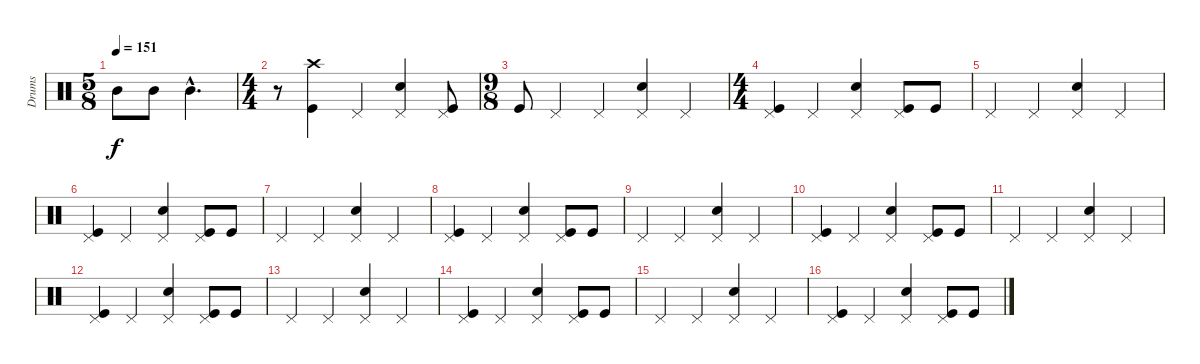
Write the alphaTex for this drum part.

\track ("Drums" "Drums") {instrument percussion}
\staff {score}
\articulation defaults
\ts (5 8)
\tempo 151
\clef neutral
\ks c "Mid Tom (hit)".8{dy f} "Mid Tom (hit)".8 "Mid Tom (hit)"{hac}.4{d}
|
\ts (4 4)
r.8 ("Crash high (hit)" "Kick (hit)").4 "Pedal Hi-Hat (hit)".4 ("Pedal Hi-Hat (hit)" "Snare (hit) 2").4 ("Pedal Hi-Hat (hit)" "Kick (hit)").8 |
\ts (9 8)
"Kick (hit)".8 "Pedal Hi-Hat (hit)".4 "Pedal Hi-Hat (hit)".4 ("Pedal Hi-Hat (hit)" "Snare (hit) 2").4 "Pedal Hi-Hat (hit)".4 |
\ts (4 4)
("Pedal Hi-Hat (hit)" "Kick (hit)").4 "Pedal Hi-Hat (hit)".4 ("Pedal Hi-Hat (hit)" "Snare (hit) 2").4 ("Pedal Hi-Hat (hit)" "Kick (hit)").8 "Kick (hit)".8 |
"Pedal Hi-Hat (hit)".4 "Pedal Hi-Hat (hit)".4 ("Pedal Hi-Hat (hit)" "Snare (hit) 2").4 "Pedal Hi-Hat (hit)".4 |
("Pedal Hi-Hat (hit)" "Kick (hit)").4 "Pedal Hi-Hat (hit)".4 ("Pedal Hi-Hat (hit)" "Snare (hit) 2").4 ("Pedal Hi-Hat (hit)" "Kick (hit)").8 "Kick (hit)".8 |
"Pedal Hi-Hat (hit)".4 "Pedal Hi-Hat (hit)".4 ("Pedal Hi-Hat (hit)" "Snare (hit) 2").4 "Pedal Hi-Hat (hit)".4 |
("Pedal Hi-Hat (hit)" "Kick (hit)").4 "Pedal Hi-Hat (hit)".4 ("Pedal Hi-Hat (hit)" "Snare (hit) 2").4 ("Pedal Hi-Hat (hit)" "Kick (hit)").8 "Kick (hit)".8 |
"Pedal Hi-Hat (hit)".4 "Pedal Hi-Hat (hit)".4 ("Pedal Hi-Hat (hit)" "Snare (hit) 2").4 "Pedal Hi-Hat (hit)".4 |
("Pedal Hi-Hat (hit)" "Kick (hit)").4 "Pedal Hi-Hat (hit)".4 ("Pedal Hi-Hat (hit)" "Snare (hit) 2").4 ("Pedal Hi-Hat (hit)" "Kick (hit)").8 "Kick (hit)".8 |
"Pedal Hi-Hat (hit)".4 "Pedal Hi-Hat (hit)".4 ("Pedal Hi-Hat (hit)" "Snare (hit) 2").4 "Pedal Hi-Hat (hit)".4 |
("Pedal Hi-Hat (hit)" "Kick (hit)").4 "Pedal Hi-Hat (hit)".4 ("Pedal Hi-Hat (hit)" "Snare (hit) 2").4 ("Pedal Hi-Hat (hit)" "Kick (hit)").8 "Kick (hit)".8 |
"Pedal Hi-Hat (hit)".4 "Pedal Hi-Hat (hit)".4 ("Pedal Hi-Hat (hit)" "Snare (hit) 2").4 "Pedal Hi-Hat (hit)".4 |
("Pedal Hi-Hat (hit)" "Kick (hit)").4 "Pedal Hi-Hat (hit)".4 ("Pedal Hi-Hat (hit)" "Snare (hit) 2").4 ("Pedal Hi-Hat (hit)" "Kick (hit)").8 "Kick (hit)".8 |
"Pedal Hi-Hat (hit)".4 "Pedal Hi-Hat (hit)".4 ("Pedal Hi-Hat (hit)" "Snare (hit) 2").4 "Pedal Hi-Hat (hit)".4 |
("Pedal Hi-Hat (hit)" "Kick (hit)").4 "Pedal Hi-Hat (hit)".4 ("Pedal Hi-Hat (hit)" "Snare (hit) 2").4 ("Pedal Hi-Hat (hit)" "Kick (hit)").8 "Kick (hit)".8
